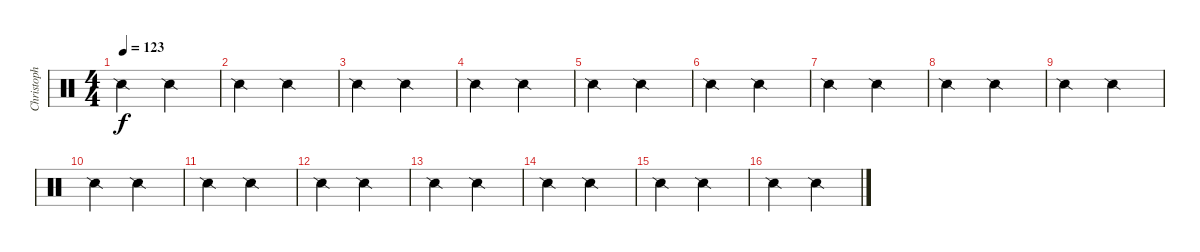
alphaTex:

\track ("Christoph DOOM Schneider" "Christoph ") {instrument percussion}
\staff {score}
\articulation defaults
\ts (4 4)
\tempo 123
\clef neutral
\ks c "Snare (side stick) 2".2{dy f} "Snare (side stick) 2".2
|
"Snare (side stick) 2".2 "Snare (side stick) 2".2 |
"Snare (side stick) 2".2 "Snare (side stick) 2".2 |
"Snare (side stick) 2".2 "Snare (side stick) 2".2 |
"Snare (side stick) 2".2 "Snare (side stick) 2".2 |
"Snare (side stick) 2".2 "Snare (side stick) 2".2 |
"Snare (side stick) 2".2 "Snare (side stick) 2".2 |
"Snare (side stick) 2".2 "Snare (side stick) 2".2 |
"Snare (side stick) 2".2 "Snare (side stick) 2".2 |
"Snare (side stick) 2".2 "Snare (side stick) 2".2 |
"Snare (side stick) 2".2 "Snare (side stick) 2".2 |
"Snare (side stick) 2".2 "Snare (side stick) 2".2 |
"Snare (side stick) 2".2 "Snare (side stick) 2".2 |
"Snare (side stick) 2".2 "Snare (side stick) 2".2 |
"Snare (side stick) 2".2 "Snare (side stick) 2".2 |
"Snare (side stick) 2".2 "Snare (side stick) 2".2
